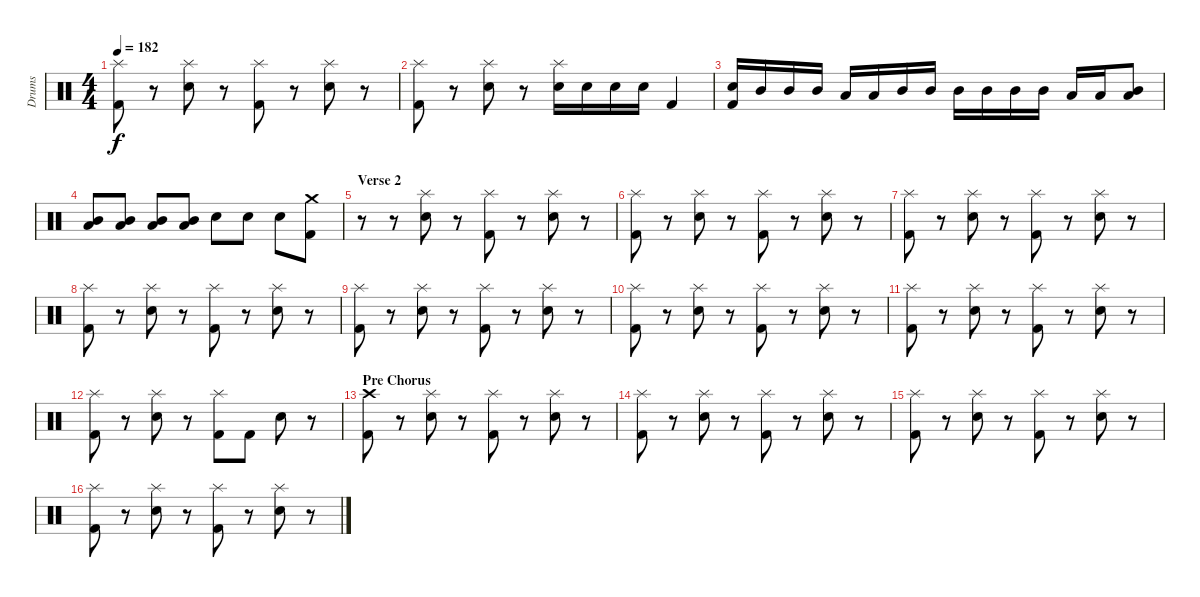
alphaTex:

\track ("Drums" "Drums") {instrument percussion}
\staff {score}
\articulation defaults
\ts (4 4)
\tempo 182
\clef neutral
\ks c
("Splash (hit)" "Kick (hit) 2").8{dy f} r.8 ("Splash (hit)" "Snare (hit) 2").8 r.8 ("Splash (hit)" "Kick (hit) 2").8 r.8 ("Splash (hit)" "Snare (hit) 2").8 r.8 |
("Splash (hit)" "Kick (hit) 2").8 r.8 ("Splash (hit)" "Snare (hit) 2").8 r.8 ("Splash (hit)" "Snare (hit) 2").16 "Snare (hit) 2".16 "Snare (hit) 2".16 "Snare (hit) 2".16 "Kick (hit) 2".4 |
("Snare (hit) 2" "Kick (hit) 2").16 "Mid Tom (hit)".16 "Mid Tom (hit)".16 "Mid Tom (hit)".16 "Low Tom (hit)".16 "Low Tom (hit)".16 "Mid Tom (hit)".16 "Mid Tom (hit)".16 "Mid Tom (hit)".16 "Mid Tom (hit)".16 "Mid Tom (hit)".16 "Mid Tom (hit)".16 "Low Tom (hit)".16 "Low Tom (hit)".16 ("Mid Tom (hit)" "Low Tom (hit)").8 |
("Mid Tom (hit)" "Low Tom (hit)").8 ("Mid Tom (hit)" "Low Tom (hit)").8 ("Mid Tom (hit)" "Low Tom (hit)").8 ("Mid Tom (hit)" "Low Tom (hit)").8 "Snare (hit) 2".8 "Snare (hit) 2".8 "Snare (hit) 2".8 ("Crash medium (hit)" "Kick (hit) 2").8 |
\section ("" "Verse 2")
r.8 r.8 ("Splash (hit)" "Snare (hit) 2").8 r.8 ("Splash (hit)" "Kick (hit) 2").8 r.8 ("Splash (hit)" "Snare (hit) 2").8 r.8 |
("Splash (hit)" "Kick (hit) 2").8 r.8 ("Splash (hit)" "Snare (hit) 2").8 r.8 ("Splash (hit)" "Kick (hit) 2").8 r.8 ("Splash (hit)" "Snare (hit) 2").8 r.8 |
("Splash (hit)" "Kick (hit) 2").8 r.8 ("Splash (hit)" "Snare (hit) 2").8 r.8 ("Splash (hit)" "Kick (hit) 2").8 r.8 ("Splash (hit)" "Snare (hit) 2").8 r.8 |
("Splash (hit)" "Kick (hit) 2").8 r.8 ("Splash (hit)" "Snare (hit) 2").8 r.8 ("Splash (hit)" "Kick (hit) 2").8 r.8 ("Splash (hit)" "Snare (hit) 2").8 r.8 |
("Splash (hit)" "Kick (hit) 2").8 r.8 ("Splash (hit)" "Snare (hit) 2").8 r.8 ("Splash (hit)" "Kick (hit) 2").8 r.8 ("Splash (hit)" "Snare (hit) 2").8 r.8 |
("Splash (hit)" "Kick (hit) 2").8 r.8 ("Splash (hit)" "Snare (hit) 2").8 r.8 ("Splash (hit)" "Kick (hit) 2").8 r.8 ("Splash (hit)" "Snare (hit) 2").8 r.8 |
("Splash (hit)" "Kick (hit) 2").8 r.8 ("Splash (hit)" "Snare (hit) 2").8 r.8 ("Splash (hit)" "Kick (hit) 2").8 r.8 ("Splash (hit)" "Snare (hit) 2").8 r.8 |
("Splash (hit)" "Kick (hit) 2").8 r.8 ("Splash (hit)" "Snare (hit) 2").8 r.8 ("Splash (hit)" "Kick (hit) 2").8 "Kick (hit) 2".8 "Snare (hit) 2".8 r.8 |
\section ("" "Pre Chorus")
("Crash high (hit)" "Kick (hit) 2").8 r.8 ("Splash (hit)" "Snare (hit) 2").8 r.8 ("Splash (hit)" "Kick (hit) 2").8 r.8 ("Splash (hit)" "Snare (hit) 2").8 r.8 |
("Splash (hit)" "Kick (hit) 2").8 r.8 ("Splash (hit)" "Snare (hit) 2").8 r.8 ("Splash (hit)" "Kick (hit) 2").8 r.8 ("Splash (hit)" "Snare (hit) 2").8 r.8 |
("Splash (hit)" "Kick (hit) 2").8 r.8 ("Splash (hit)" "Snare (hit) 2").8 r.8 ("Splash (hit)" "Kick (hit) 2").8 r.8 ("Splash (hit)" "Snare (hit) 2").8 r.8 |
("Splash (hit)" "Kick (hit) 2").8 r.8 ("Splash (hit)" "Snare (hit) 2").8 r.8 ("Splash (hit)" "Kick (hit) 2").8 r.8 ("Splash (hit)" "Snare (hit) 2").8 r.8
